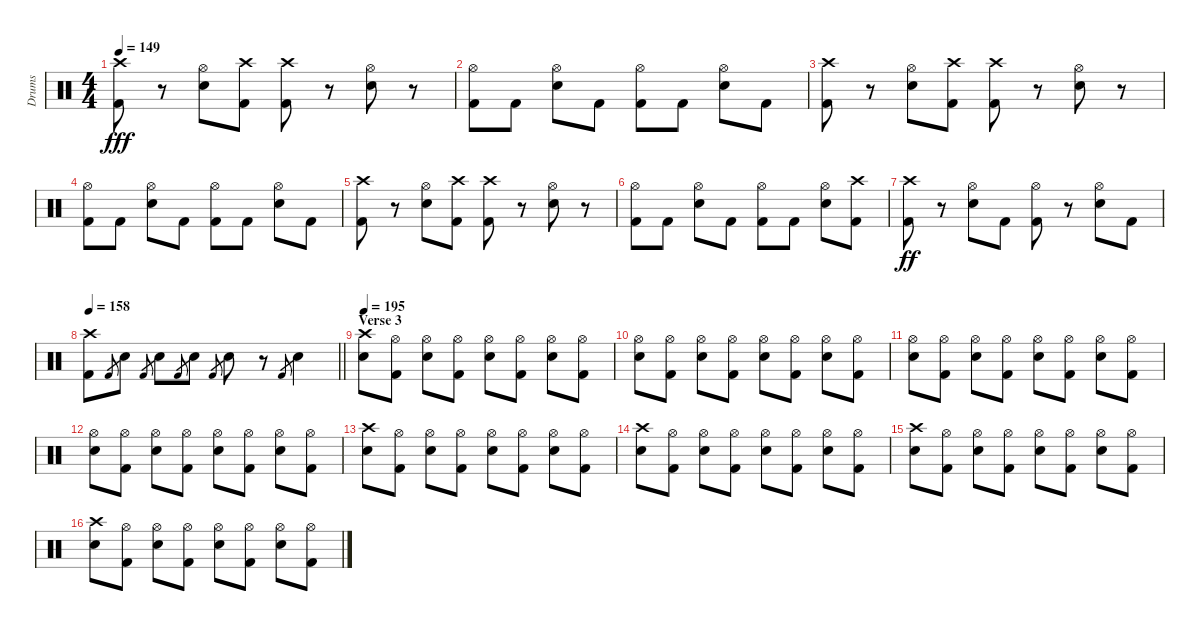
\track ("Drums" "Drums") {instrument percussion}
\staff {score}
\articulation defaults
\ts (4 4)
\tempo 149
\clef neutral
\ks c
("Crash high (hit)" "Kick (hit) 2").8{dy fff} r.8 ("Hi-Hat (open)" "Snare (hit) 2").8 ("Crash high (hit)" "Kick (hit) 2").8 ("Crash high (hit)" "Kick (hit) 2").8 r.8 ("Hi-Hat (open)" "Snare (hit) 2").8 r.8 |
("Hi-Hat (open)" "Kick (hit) 2").8 "Kick (hit) 2".8 ("Hi-Hat (open)" "Snare (hit) 2").8 "Kick (hit) 2".8 ("Hi-Hat (open)" "Kick (hit) 2").8 "Kick (hit) 2".8 ("Hi-Hat (open)" "Snare (hit) 2").8 "Kick (hit) 2".8 |
("Crash high (hit)" "Kick (hit) 2").8 r.8 ("Hi-Hat (open)" "Snare (hit) 2").8 ("Crash high (hit)" "Kick (hit) 2").8 ("Crash high (hit)" "Kick (hit) 2").8 r.8 ("Hi-Hat (open)" "Snare (hit) 2").8 r.8 |
("Hi-Hat (open)" "Kick (hit) 2").8 "Kick (hit) 2".8 ("Hi-Hat (open)" "Snare (hit) 2").8 "Kick (hit) 2".8 ("Hi-Hat (open)" "Kick (hit) 2").8 "Kick (hit) 2".8 ("Hi-Hat (open)" "Snare (hit) 2").8 "Kick (hit) 2".8 |
("Crash high (hit)" "Kick (hit) 2").8 r.8 ("Hi-Hat (open)" "Snare (hit) 2").8 ("Crash high (hit)" "Kick (hit) 2").8 ("Crash high (hit)" "Kick (hit) 2").8 r.8 ("Hi-Hat (open)" "Snare (hit) 2").8 r.8 |
("Hi-Hat (open)" "Kick (hit) 2").8 "Kick (hit) 2".8 ("Hi-Hat (open)" "Snare (hit) 2").8 "Kick (hit) 2".8 ("Hi-Hat (open)" "Kick (hit) 2").8 "Kick (hit) 2".8 ("Hi-Hat (open)" "Snare (hit) 2").8 ("Crash high (hit)" "Kick (hit) 2").8 |
("Crash high (hit)" "Kick (hit) 2").8{dy ff} r.8 ("Hi-Hat (open)" "Snare (hit) 2").8 "Kick (hit) 2".8 ("Hi-Hat (open)" "Kick (hit) 2").8 r.8 ("Hi-Hat (open)" "Snare (hit) 2").8 "Kick (hit) 2".8 |
\tempo 158
\barLineRight lightlight
("Crash high (hit)" "Kick (hit) 2").8 "Kick (hit) 2".8{gr} "Snare (hit) 2".8 "Kick (hit) 2".8{gr} "Snare (hit) 2".8 "Kick (hit) 2".8{gr} "Snare (hit) 2".8 "Kick (hit) 2".8{gr} "Snare (hit) 2".8 r.8 "Kick (hit) 2".8{gr} "Snare (hit) 2".4 |
\section ("" "Verse 3")
\tempo 195
("Crash high (hit)" "Snare (hit) 2").8 ("Hi-Hat (open)" "Kick (hit) 2").8 ("Hi-Hat (open)" "Snare (hit) 2").8 ("Hi-Hat (open)" "Kick (hit) 2").8 ("Hi-Hat (open)" "Snare (hit) 2").8 ("Hi-Hat (open)" "Kick (hit) 2").8 ("Hi-Hat (open)" "Snare (hit) 2").8 ("Hi-Hat (open)" "Kick (hit) 2").8 |
("Hi-Hat (open)" "Snare (hit) 2").8 ("Hi-Hat (open)" "Kick (hit) 2").8 ("Hi-Hat (open)" "Snare (hit) 2").8 ("Hi-Hat (open)" "Kick (hit) 2").8 ("Hi-Hat (open)" "Snare (hit) 2").8 ("Hi-Hat (open)" "Kick (hit) 2").8 ("Hi-Hat (open)" "Snare (hit) 2").8 ("Hi-Hat (open)" "Kick (hit) 2").8 |
("Hi-Hat (open)" "Snare (hit) 2").8 ("Hi-Hat (open)" "Kick (hit) 2").8 ("Hi-Hat (open)" "Snare (hit) 2").8 ("Hi-Hat (open)" "Kick (hit) 2").8 ("Hi-Hat (open)" "Snare (hit) 2").8 ("Hi-Hat (open)" "Kick (hit) 2").8 ("Hi-Hat (open)" "Snare (hit) 2").8 ("Hi-Hat (open)" "Kick (hit) 2").8 |
("Hi-Hat (open)" "Snare (hit) 2").8 ("Hi-Hat (open)" "Kick (hit) 2").8 ("Hi-Hat (open)" "Snare (hit) 2").8 ("Hi-Hat (open)" "Kick (hit) 2").8 ("Hi-Hat (open)" "Snare (hit) 2").8 ("Hi-Hat (open)" "Kick (hit) 2").8 ("Hi-Hat (open)" "Snare (hit) 2").8 ("Hi-Hat (open)" "Kick (hit) 2").8 |
("Crash high (hit)" "Snare (hit) 2").8 ("Hi-Hat (open)" "Kick (hit) 2").8 ("Hi-Hat (open)" "Snare (hit) 2").8 ("Hi-Hat (open)" "Kick (hit) 2").8 ("Hi-Hat (open)" "Snare (hit) 2").8 ("Hi-Hat (open)" "Kick (hit) 2").8 ("Hi-Hat (open)" "Snare (hit) 2").8 ("Hi-Hat (open)" "Kick (hit) 2").8 |
("Crash high (hit)" "Snare (hit) 2").8 ("Hi-Hat (open)" "Kick (hit) 2").8 ("Hi-Hat (open)" "Snare (hit) 2").8 ("Hi-Hat (open)" "Kick (hit) 2").8 ("Hi-Hat (open)" "Snare (hit) 2").8 ("Hi-Hat (open)" "Kick (hit) 2").8 ("Hi-Hat (open)" "Snare (hit) 2").8 ("Hi-Hat (open)" "Kick (hit) 2").8 |
("Crash high (hit)" "Snare (hit) 2").8 ("Hi-Hat (open)" "Kick (hit) 2").8 ("Hi-Hat (open)" "Snare (hit) 2").8 ("Hi-Hat (open)" "Kick (hit) 2").8 ("Hi-Hat (open)" "Snare (hit) 2").8 ("Hi-Hat (open)" "Kick (hit) 2").8 ("Hi-Hat (open)" "Snare (hit) 2").8 ("Hi-Hat (open)" "Kick (hit) 2").8 |
("Crash high (hit)" "Snare (hit) 2").8 ("Hi-Hat (open)" "Kick (hit) 2").8 ("Hi-Hat (open)" "Snare (hit) 2").8 ("Hi-Hat (open)" "Kick (hit) 2").8 ("Hi-Hat (open)" "Snare (hit) 2").8 ("Hi-Hat (open)" "Kick (hit) 2").8 ("Hi-Hat (open)" "Snare (hit) 2").8 ("Hi-Hat (open)" "Kick (hit) 2").8
